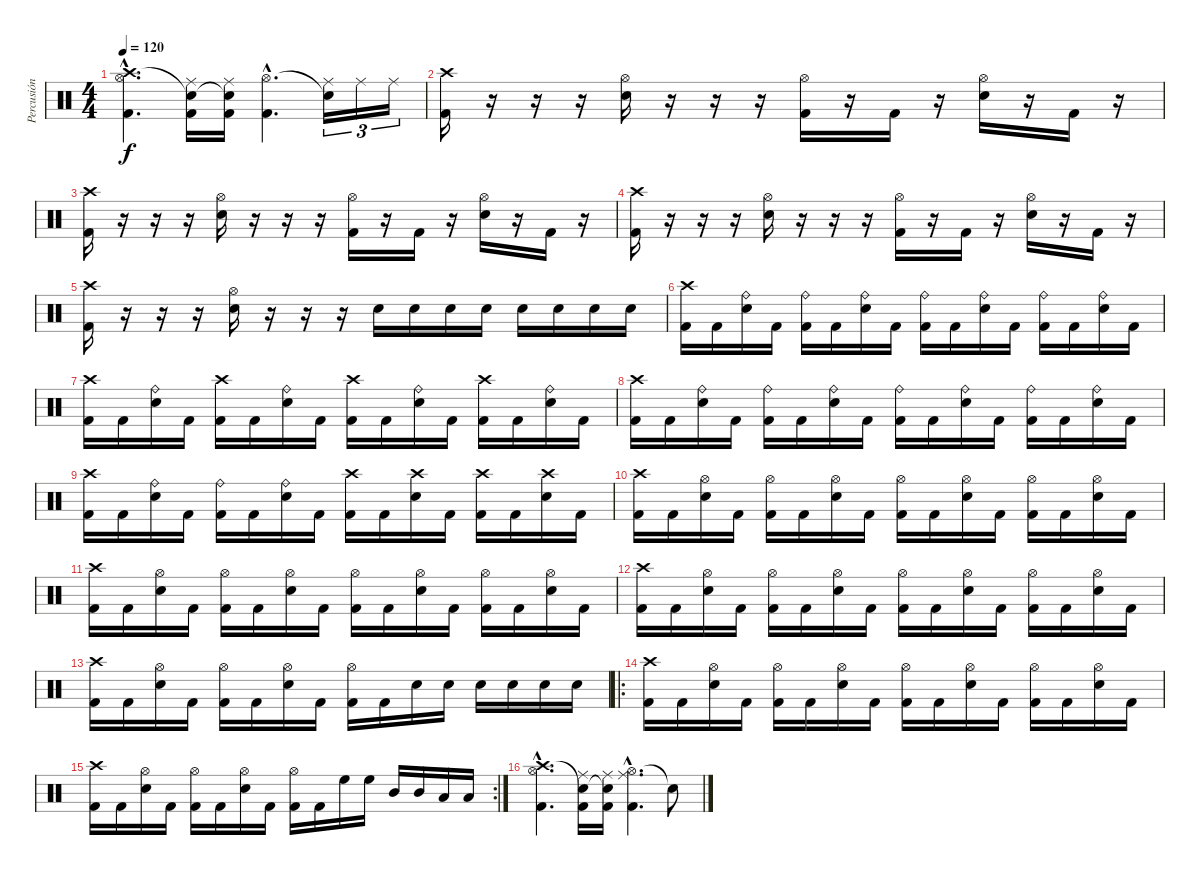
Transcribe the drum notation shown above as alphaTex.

\track ("Percusión" "Percusión") {instrument percussion}
\staff {score}
\articulation defaults
\ts (4 4)
\tempo 120
\clef neutral
\ks c
("Crash high (hit)"{hac} "Hi-Hat (open)"{hac} "Kick (hit) 2"{hac}).4{d dy f} ("Snare (hit)"{t} "Kick (hit) 2" "Ride (middle)").16 ("Snare (hit)"{t} "Kick (hit) 2" "Ride (middle)").16 ("Hi-Hat (open)"{hac} "Kick (hit) 2"{hac}).4{d} ("Snare (hit)"{t} "Ride (middle)").16{tu (3 2)} "Ride (middle)".16{tu (3 2)} "Ride (middle)".16{tu (3 2)} |
("Crash high (hit)" "Kick (hit) 2").16 r.16 r.16 r.16 ("Hi-Hat (open)" "Electric Snare (hit)").16 r.16 r.16 r.16 ("Hi-Hat (open)" "Kick (hit) 2").16 r.16 "Kick (hit) 2".16 r.16 ("Hi-Hat (open)" "Electric Snare (hit)").16 r.16 "Kick (hit) 2".16 r.16 |
("Crash high (hit)" "Kick (hit) 2").16 r.16 r.16 r.16 ("Hi-Hat (open)" "Electric Snare (hit)").16 r.16 r.16 r.16 ("Hi-Hat (open)" "Kick (hit) 2").16 r.16 "Kick (hit) 2".16 r.16 ("Hi-Hat (open)" "Electric Snare (hit)").16 r.16 "Kick (hit) 2".16 r.16 |
("Crash high (hit)" "Kick (hit) 2").16 r.16 r.16 r.16 ("Hi-Hat (open)" "Electric Snare (hit)").16 r.16 r.16 r.16 ("Hi-Hat (open)" "Kick (hit) 2").16 r.16 "Kick (hit) 2".16 r.16 ("Hi-Hat (open)" "Electric Snare (hit)").16 r.16 "Kick (hit) 2".16 r.16 |
("Crash high (hit)" "Kick (hit) 2").16 r.16 r.16 r.16 ("Hi-Hat (open)" "Electric Snare (hit)").16 r.16 r.16 r.16 "Electric Snare (hit)".16 "Electric Snare (hit)".16 "Electric Snare (hit)".16 "Electric Snare (hit)".16 "Electric Snare (hit)".16 "Electric Snare (hit)".16 "Electric Snare (hit)".16 "Electric Snare (hit)".16 |
("Crash high (hit)" "Kick (hit) 2").16 "Kick (hit) 2".16 ("Ride (bell)" "Electric Snare (hit)").16 "Kick (hit) 2".16 ("Ride (bell)" "Kick (hit) 2").16 "Kick (hit) 2".16 ("Ride (bell)" "Electric Snare (hit)").16 "Kick (hit) 2".16 ("Ride (bell)" "Kick (hit) 2").16 "Kick (hit) 2".16 ("Ride (bell)" "Electric Snare (hit)").16 "Kick (hit) 2".16 ("Ride (bell)" "Kick (hit) 2").16 "Kick (hit) 2".16 ("Ride (bell)" "Electric Snare (hit)").16 "Kick (hit) 2".16 |
("Crash high (hit)" "Kick (hit) 2").16 "Kick (hit) 2".16 ("Ride (bell)" "Electric Snare (hit)").16 "Kick (hit) 2".16 ("Crash high (hit)" "Kick (hit) 2").16 "Kick (hit) 2".16 ("Ride (bell)" "Electric Snare (hit)").16 "Kick (hit) 2".16 ("Crash high (hit)" "Kick (hit) 2").16 "Kick (hit) 2".16 ("Ride (bell)" "Electric Snare (hit)").16 "Kick (hit) 2".16 ("Crash high (hit)" "Kick (hit) 2").16 "Kick (hit) 2".16 ("Ride (bell)" "Electric Snare (hit)").16 "Kick (hit) 2".16 |
("Crash high (hit)" "Kick (hit) 2").16 "Kick (hit) 2".16 ("Ride (bell)" "Electric Snare (hit)").16 "Kick (hit) 2".16 ("Ride (bell)" "Kick (hit) 2").16 "Kick (hit) 2".16 ("Ride (bell)" "Electric Snare (hit)").16 "Kick (hit) 2".16 ("Ride (bell)" "Kick (hit) 2").16 "Kick (hit) 2".16 ("Ride (bell)" "Electric Snare (hit)").16 "Kick (hit) 2".16 ("Ride (bell)" "Kick (hit) 2").16 "Kick (hit) 2".16 ("Ride (bell)" "Electric Snare (hit)").16 "Kick (hit) 2".16 |
("Crash high (hit)" "Kick (hit) 2").16 "Kick (hit) 2".16 ("Ride (bell)" "Electric Snare (hit)").16 "Kick (hit) 2".16 ("Ride (bell)" "Kick (hit) 2").16 "Kick (hit) 2".16 ("Ride (bell)" "Electric Snare (hit)").16 "Kick (hit) 2".16 ("Crash high (hit)" "Kick (hit) 2").16 "Kick (hit) 2".16 ("Crash high (hit)" "Electric Snare (hit)").16 "Kick (hit) 2".16 ("Crash high (hit)" "Kick (hit) 2").16 "Kick (hit) 2".16 ("Crash high (hit)" "Electric Snare (hit)").16 "Kick (hit) 2".16 |
("Crash high (hit)" "Kick (hit) 2").16 "Kick (hit) 2".16 ("Hi-Hat (open)" "Electric Snare (hit)").16 "Kick (hit) 2".16 ("Hi-Hat (open)" "Kick (hit) 2").16 "Kick (hit) 2".16 ("Hi-Hat (open)" "Electric Snare (hit)").16 "Kick (hit) 2".16 ("Hi-Hat (open)" "Kick (hit) 2").16 "Kick (hit) 2".16 ("Hi-Hat (open)" "Electric Snare (hit)").16 "Kick (hit) 2".16 ("Hi-Hat (open)" "Kick (hit) 2").16 "Kick (hit) 2".16 ("Hi-Hat (open)" "Electric Snare (hit)").16 "Kick (hit) 2".16 |
("Crash high (hit)" "Kick (hit) 2").16 "Kick (hit) 2".16 ("Hi-Hat (open)" "Electric Snare (hit)").16 "Kick (hit) 2".16 ("Hi-Hat (open)" "Kick (hit) 2").16 "Kick (hit) 2".16 ("Hi-Hat (open)" "Electric Snare (hit)").16 "Kick (hit) 2".16 ("Hi-Hat (open)" "Kick (hit) 2").16 "Kick (hit) 2".16 ("Hi-Hat (open)" "Electric Snare (hit)").16 "Kick (hit) 2".16 ("Hi-Hat (open)" "Kick (hit) 2").16 "Kick (hit) 2".16 ("Hi-Hat (open)" "Electric Snare (hit)").16 "Kick (hit) 2".16 |
("Crash high (hit)" "Kick (hit) 2").16 "Kick (hit) 2".16 ("Hi-Hat (open)" "Electric Snare (hit)").16 "Kick (hit) 2".16 ("Hi-Hat (open)" "Kick (hit) 2").16 "Kick (hit) 2".16 ("Hi-Hat (open)" "Electric Snare (hit)").16 "Kick (hit) 2".16 ("Hi-Hat (open)" "Kick (hit) 2").16 "Kick (hit) 2".16 ("Hi-Hat (open)" "Electric Snare (hit)").16 "Kick (hit) 2".16 ("Hi-Hat (open)" "Kick (hit) 2").16 "Kick (hit) 2".16 ("Hi-Hat (open)" "Electric Snare (hit)").16 "Kick (hit) 2".16 |
("Crash high (hit)" "Kick (hit) 2").16 "Kick (hit) 2".16 ("Hi-Hat (open)" "Electric Snare (hit)").16 "Kick (hit) 2".16 ("Hi-Hat (open)" "Kick (hit) 2").16 "Kick (hit) 2".16 ("Hi-Hat (open)" "Electric Snare (hit)").16 "Kick (hit) 2".16 ("Hi-Hat (open)" "Kick (hit) 2").16 "Kick (hit) 2".16 "Electric Snare (hit)".16 "Electric Snare (hit)".16 "Electric Snare (hit)".16 "Electric Snare (hit)".16 "Electric Snare (hit)".16 "Electric Snare (hit)".16 |
\ro
("Crash high (hit)" "Kick (hit) 2").16 "Kick (hit) 2".16 ("Hi-Hat (open)" "Electric Snare (hit)").16 "Kick (hit) 2".16 ("Hi-Hat (open)" "Kick (hit) 2").16 "Kick (hit) 2".16 ("Hi-Hat (open)" "Electric Snare (hit)").16 "Kick (hit) 2".16 ("Hi-Hat (open)" "Kick (hit) 2").16 "Kick (hit) 2".16 ("Hi-Hat (open)" "Electric Snare (hit)").16 "Kick (hit) 2".16 ("Hi-Hat (open)" "Kick (hit) 2").16 "Kick (hit) 2".16 ("Hi-Hat (open)" "Electric Snare (hit)").16 "Kick (hit) 2".16 |
\rc 2
("Crash high (hit)" "Kick (hit) 2").16 "Kick (hit) 2".16 ("Hi-Hat (open)" "Electric Snare (hit)").16 "Kick (hit) 2".16 ("Hi-Hat (open)" "Kick (hit) 2").16 "Kick (hit) 2".16 ("Hi-Hat (open)" "Electric Snare (hit)").16 "Kick (hit) 2".16 ("Hi-Hat (open)" "Kick (hit) 2").16 "Kick (hit) 2".16 "High Floor Tom (hit)".16 "High Floor Tom (hit)".16 "Mid Tom (hit)".16 "Mid Tom (hit)".16 "Low Tom (hit)".16 "Low Tom (hit)".16 |
("Crash high (hit)"{hac} "Hi-Hat (open)"{hac} "Kick (hit) 2"{hac}).4{d} ("Snare (hit)"{t} "Kick (hit) 2" "Ride (middle)").16 ("Snare (hit)"{t} "Kick (hit) 2" "Ride (middle)").16 ("Hi-Hat (open)"{hac} "Kick (hit) 2"{hac} "Ride (middle)"{hac}).4{d} "Snare (hit)"{t}.8
